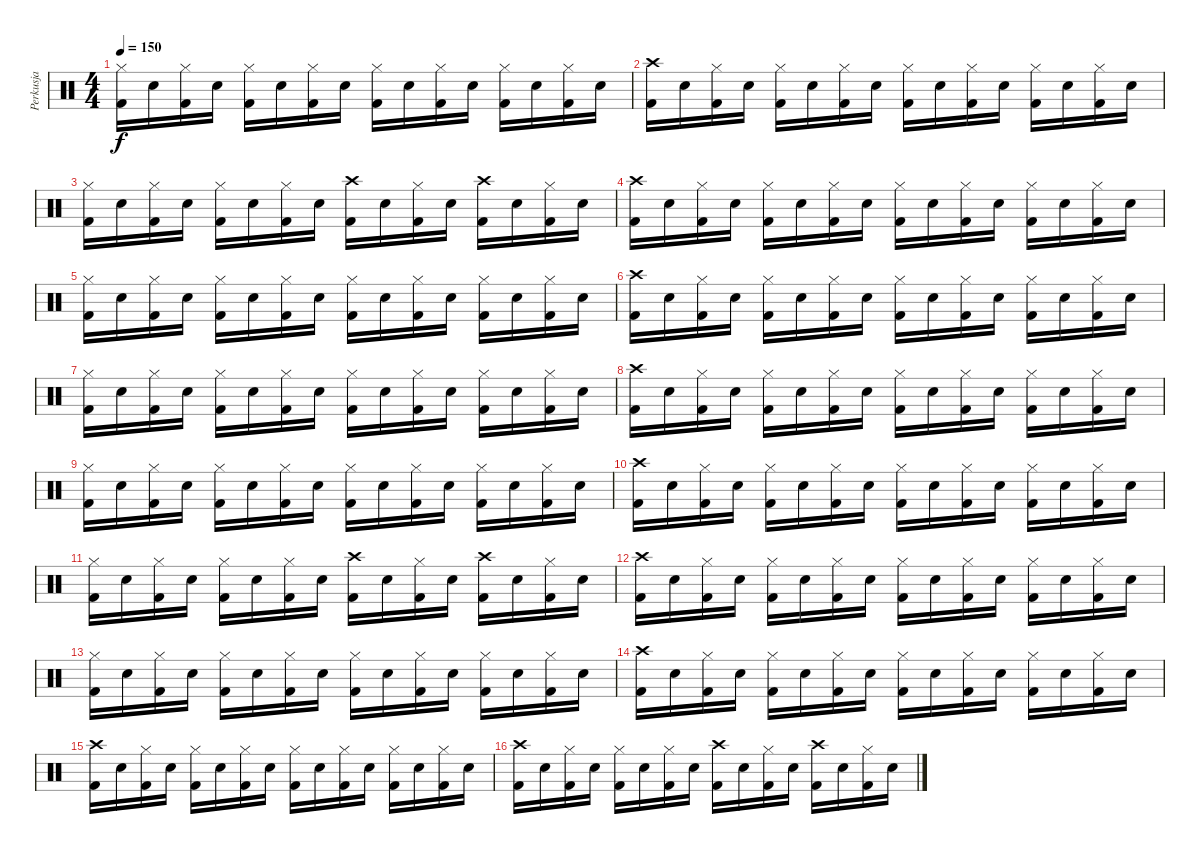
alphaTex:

\track ("Perkusja" "Perkusja") {instrument percussion}
\staff {score}
\articulation defaults
\ts (4 4)
\tempo 150
\clef neutral
\ks c
("Hi-Hat (closed)" "Kick (hit) 2").16{dy f} "Snare (hit) 2".16 ("Hi-Hat (closed)" "Kick (hit) 2").16 "Snare (hit) 2".16 ("Hi-Hat (closed)" "Kick (hit) 2").16 "Snare (hit) 2".16 ("Hi-Hat (closed)" "Kick (hit) 2").16 "Snare (hit) 2".16 ("Hi-Hat (closed)" "Kick (hit) 2").16 "Snare (hit) 2".16 ("Hi-Hat (closed)" "Kick (hit) 2").16 "Snare (hit) 2".16 ("Hi-Hat (closed)" "Kick (hit) 2").16 "Snare (hit) 2".16 ("Hi-Hat (closed)" "Kick (hit) 2").16 "Snare (hit) 2".16 |
("Crash high (hit)" "Kick (hit) 2").16 "Snare (hit) 2".16 ("Hi-Hat (closed)" "Kick (hit) 2").16 "Snare (hit) 2".16 ("Hi-Hat (closed)" "Kick (hit) 2").16 "Snare (hit) 2".16 ("Hi-Hat (closed)" "Kick (hit) 2").16 "Snare (hit) 2".16 ("Hi-Hat (closed)" "Kick (hit) 2").16 "Snare (hit) 2".16 ("Hi-Hat (closed)" "Kick (hit) 2").16 "Snare (hit) 2".16 ("Hi-Hat (closed)" "Kick (hit) 2").16 "Snare (hit) 2".16 ("Hi-Hat (closed)" "Kick (hit) 2").16 "Snare (hit) 2".16 |
("Hi-Hat (closed)" "Kick (hit) 2").16 "Snare (hit) 2".16 ("Hi-Hat (closed)" "Kick (hit) 2").16 "Snare (hit) 2".16 ("Hi-Hat (closed)" "Kick (hit) 2").16 "Snare (hit) 2".16 ("Hi-Hat (closed)" "Kick (hit) 2").16 "Snare (hit) 2".16 ("Crash high (hit)" "Kick (hit) 2").16 "Snare (hit) 2".16 ("Hi-Hat (closed)" "Kick (hit) 2").16 "Snare (hit) 2".16 ("Crash high (hit)" "Kick (hit) 2").16 "Snare (hit) 2".16 ("Hi-Hat (closed)" "Kick (hit) 2").16 "Snare (hit) 2".16 |
("Crash high (hit)" "Kick (hit) 2").16 "Snare (hit) 2".16 ("Hi-Hat (closed)" "Kick (hit) 2").16 "Snare (hit) 2".16 ("Hi-Hat (closed)" "Kick (hit) 2").16 "Snare (hit) 2".16 ("Hi-Hat (closed)" "Kick (hit) 2").16 "Snare (hit) 2".16 ("Hi-Hat (closed)" "Kick (hit) 2").16 "Snare (hit) 2".16 ("Hi-Hat (closed)" "Kick (hit) 2").16 "Snare (hit) 2".16 ("Hi-Hat (closed)" "Kick (hit) 2").16 "Snare (hit) 2".16 ("Hi-Hat (closed)" "Kick (hit) 2").16 "Snare (hit) 2".16 |
("Hi-Hat (closed)" "Kick (hit) 2").16 "Snare (hit) 2".16 ("Hi-Hat (closed)" "Kick (hit) 2").16 "Snare (hit) 2".16 ("Hi-Hat (closed)" "Kick (hit) 2").16 "Snare (hit) 2".16 ("Hi-Hat (closed)" "Kick (hit) 2").16 "Snare (hit) 2".16 ("Hi-Hat (closed)" "Kick (hit) 2").16 "Snare (hit) 2".16 ("Hi-Hat (closed)" "Kick (hit) 2").16 "Snare (hit) 2".16 ("Hi-Hat (closed)" "Kick (hit) 2").16 "Snare (hit) 2".16 ("Hi-Hat (closed)" "Kick (hit) 2").16 "Snare (hit) 2".16 |
("Crash high (hit)" "Kick (hit) 2").16 "Snare (hit) 2".16 ("Hi-Hat (closed)" "Kick (hit) 2").16 "Snare (hit) 2".16 ("Hi-Hat (closed)" "Kick (hit) 2").16 "Snare (hit) 2".16 ("Hi-Hat (closed)" "Kick (hit) 2").16 "Snare (hit) 2".16 ("Hi-Hat (closed)" "Kick (hit) 2").16 "Snare (hit) 2".16 ("Hi-Hat (closed)" "Kick (hit) 2").16 "Snare (hit) 2".16 ("Hi-Hat (closed)" "Kick (hit) 2").16 "Snare (hit) 2".16 ("Hi-Hat (closed)" "Kick (hit) 2").16 "Snare (hit) 2".16 |
("Hi-Hat (closed)" "Kick (hit) 2").16 "Snare (hit) 2".16 ("Hi-Hat (closed)" "Kick (hit) 2").16 "Snare (hit) 2".16 ("Hi-Hat (closed)" "Kick (hit) 2").16 "Snare (hit) 2".16 ("Hi-Hat (closed)" "Kick (hit) 2").16 "Snare (hit) 2".16 ("Hi-Hat (closed)" "Kick (hit) 2").16 "Snare (hit) 2".16 ("Hi-Hat (closed)" "Kick (hit) 2").16 "Snare (hit) 2".16 ("Hi-Hat (closed)" "Kick (hit) 2").16 "Snare (hit) 2".16 ("Hi-Hat (closed)" "Kick (hit) 2").16 "Snare (hit) 2".16 |
("Crash high (hit)" "Kick (hit) 2").16 "Snare (hit) 2".16 ("Hi-Hat (closed)" "Kick (hit) 2").16 "Snare (hit) 2".16 ("Hi-Hat (closed)" "Kick (hit) 2").16 "Snare (hit) 2".16 ("Hi-Hat (closed)" "Kick (hit) 2").16 "Snare (hit) 2".16 ("Hi-Hat (closed)" "Kick (hit) 2").16 "Snare (hit) 2".16 ("Hi-Hat (closed)" "Kick (hit) 2").16 "Snare (hit) 2".16 ("Hi-Hat (closed)" "Kick (hit) 2").16 "Snare (hit) 2".16 ("Hi-Hat (closed)" "Kick (hit) 2").16 "Snare (hit) 2".16 |
("Hi-Hat (closed)" "Kick (hit) 2").16 "Snare (hit) 2".16 ("Hi-Hat (closed)" "Kick (hit) 2").16 "Snare (hit) 2".16 ("Hi-Hat (closed)" "Kick (hit) 2").16 "Snare (hit) 2".16 ("Hi-Hat (closed)" "Kick (hit) 2").16 "Snare (hit) 2".16 ("Hi-Hat (closed)" "Kick (hit) 2").16 "Snare (hit) 2".16 ("Hi-Hat (closed)" "Kick (hit) 2").16 "Snare (hit) 2".16 ("Hi-Hat (closed)" "Kick (hit) 2").16 "Snare (hit) 2".16 ("Hi-Hat (closed)" "Kick (hit) 2").16 "Snare (hit) 2".16 |
("Crash high (hit)" "Kick (hit) 2").16 "Snare (hit) 2".16 ("Hi-Hat (closed)" "Kick (hit) 2").16 "Snare (hit) 2".16 ("Hi-Hat (closed)" "Kick (hit) 2").16 "Snare (hit) 2".16 ("Hi-Hat (closed)" "Kick (hit) 2").16 "Snare (hit) 2".16 ("Hi-Hat (closed)" "Kick (hit) 2").16 "Snare (hit) 2".16 ("Hi-Hat (closed)" "Kick (hit) 2").16 "Snare (hit) 2".16 ("Hi-Hat (closed)" "Kick (hit) 2").16 "Snare (hit) 2".16 ("Hi-Hat (closed)" "Kick (hit) 2").16 "Snare (hit) 2".16 |
("Hi-Hat (closed)" "Kick (hit) 2").16 "Snare (hit) 2".16 ("Hi-Hat (closed)" "Kick (hit) 2").16 "Snare (hit) 2".16 ("Hi-Hat (closed)" "Kick (hit) 2").16 "Snare (hit) 2".16 ("Hi-Hat (closed)" "Kick (hit) 2").16 "Snare (hit) 2".16 ("Crash high (hit)" "Kick (hit) 2").16 "Snare (hit) 2".16 ("Hi-Hat (closed)" "Kick (hit) 2").16 "Snare (hit) 2".16 ("Crash high (hit)" "Kick (hit) 2").16 "Snare (hit) 2".16 ("Hi-Hat (closed)" "Kick (hit) 2").16 "Snare (hit) 2".16 |
("Crash high (hit)" "Kick (hit) 2").16 "Snare (hit) 2".16 ("Hi-Hat (closed)" "Kick (hit) 2").16 "Snare (hit) 2".16 ("Hi-Hat (closed)" "Kick (hit) 2").16 "Snare (hit) 2".16 ("Hi-Hat (closed)" "Kick (hit) 2").16 "Snare (hit) 2".16 ("Hi-Hat (closed)" "Kick (hit) 2").16 "Snare (hit) 2".16 ("Hi-Hat (closed)" "Kick (hit) 2").16 "Snare (hit) 2".16 ("Hi-Hat (closed)" "Kick (hit) 2").16 "Snare (hit) 2".16 ("Hi-Hat (closed)" "Kick (hit) 2").16 "Snare (hit) 2".16 |
("Hi-Hat (closed)" "Kick (hit) 2").16 "Snare (hit) 2".16 ("Hi-Hat (closed)" "Kick (hit) 2").16 "Snare (hit) 2".16 ("Hi-Hat (closed)" "Kick (hit) 2").16 "Snare (hit) 2".16 ("Hi-Hat (closed)" "Kick (hit) 2").16 "Snare (hit) 2".16 ("Hi-Hat (closed)" "Kick (hit) 2").16 "Snare (hit) 2".16 ("Hi-Hat (closed)" "Kick (hit) 2").16 "Snare (hit) 2".16 ("Hi-Hat (closed)" "Kick (hit) 2").16 "Snare (hit) 2".16 ("Hi-Hat (closed)" "Kick (hit) 2").16 "Snare (hit) 2".16 |
("Crash high (hit)" "Kick (hit) 2").16 "Snare (hit) 2".16 ("Hi-Hat (closed)" "Kick (hit) 2").16 "Snare (hit) 2".16 ("Hi-Hat (closed)" "Kick (hit) 2").16 "Snare (hit) 2".16 ("Hi-Hat (closed)" "Kick (hit) 2").16 "Snare (hit) 2".16 ("Hi-Hat (closed)" "Kick (hit) 2").16 "Snare (hit) 2".16 ("Hi-Hat (closed)" "Kick (hit) 2").16 "Snare (hit) 2".16 ("Hi-Hat (closed)" "Kick (hit) 2").16 "Snare (hit) 2".16 ("Hi-Hat (closed)" "Kick (hit) 2").16 "Snare (hit) 2".16 |
("Crash high (hit)" "Kick (hit) 2").16 "Snare (hit) 2".16 ("Hi-Hat (closed)" "Kick (hit) 2").16 "Snare (hit) 2".16 ("Hi-Hat (closed)" "Kick (hit) 2").16 "Snare (hit) 2".16 ("Hi-Hat (closed)" "Kick (hit) 2").16 "Snare (hit) 2".16 ("Hi-Hat (closed)" "Kick (hit) 2").16 "Snare (hit) 2".16 ("Hi-Hat (closed)" "Kick (hit) 2").16 "Snare (hit) 2".16 ("Hi-Hat (closed)" "Kick (hit) 2").16 "Snare (hit) 2".16 ("Hi-Hat (closed)" "Kick (hit) 2").16 "Snare (hit) 2".16 |
("Crash high (hit)" "Kick (hit) 2").16 "Snare (hit) 2".16 ("Hi-Hat (closed)" "Kick (hit) 2").16 "Snare (hit) 2".16 ("Hi-Hat (closed)" "Kick (hit) 2").16 "Snare (hit) 2".16 ("Hi-Hat (closed)" "Kick (hit) 2").16 "Snare (hit) 2".16 ("Crash high (hit)" "Kick (hit) 2").16 "Snare (hit) 2".16 ("Hi-Hat (closed)" "Kick (hit) 2").16 "Snare (hit) 2".16 ("Crash high (hit)" "Kick (hit) 2").16 "Snare (hit) 2".16 ("Hi-Hat (closed)" "Kick (hit) 2").16 "Snare (hit) 2".16
